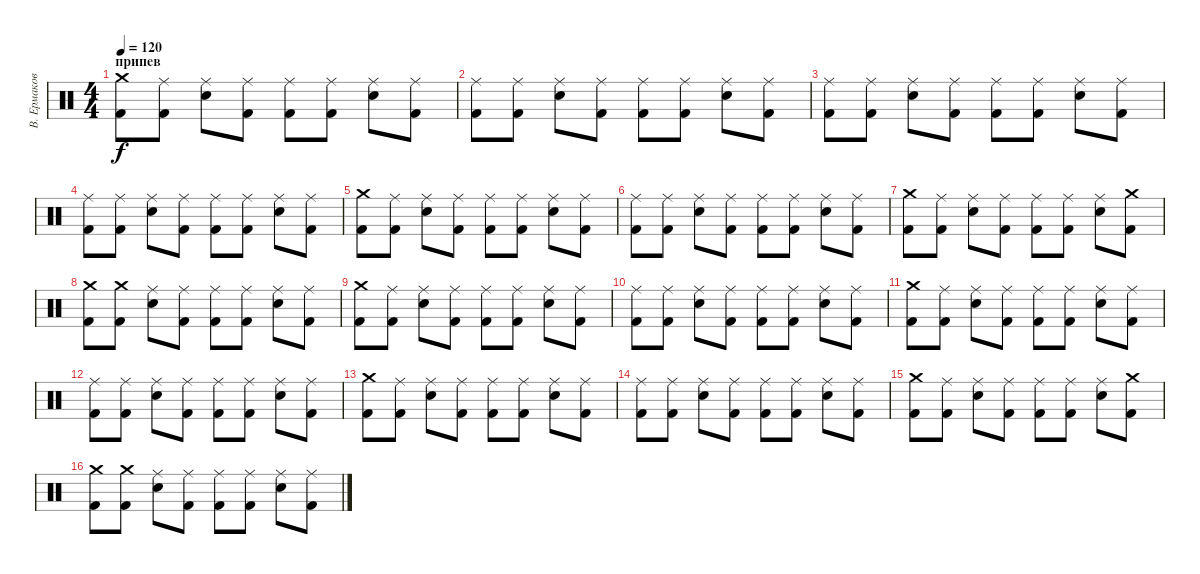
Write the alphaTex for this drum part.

\track ("В. Ермаков" "В. Ермаков") {instrument percussion}
\staff {score}
\articulation defaults
\ts (4 4)
\section ("" "припев")
\tempo 120
\clef neutral
\ks c
("Crash medium (hit)" "Kick (hit) 2").8{dy f} ("Ride (middle)" "Kick (hit) 2").8 ("Ride (middle)" "Electric Snare (hit)").8 ("Ride (middle)" "Kick (hit) 2").8 ("Ride (middle)" "Kick (hit) 2").8 ("Ride (middle)" "Kick (hit) 2").8 ("Ride (middle)" "Electric Snare (hit)").8 ("Ride (middle)" "Kick (hit) 2").8 |
("Ride (middle)" "Kick (hit) 2").8 ("Ride (middle)" "Kick (hit) 2").8 ("Ride (middle)" "Electric Snare (hit)").8 ("Ride (middle)" "Kick (hit) 2").8 ("Ride (middle)" "Kick (hit) 2").8 ("Ride (middle)" "Kick (hit) 2").8 ("Ride (middle)" "Electric Snare (hit)").8 ("Ride (middle)" "Kick (hit) 2").8 |
("Ride (middle)" "Kick (hit) 2").8 ("Ride (middle)" "Kick (hit) 2").8 ("Ride (middle)" "Electric Snare (hit)").8 ("Ride (middle)" "Kick (hit) 2").8 ("Ride (middle)" "Kick (hit) 2").8 ("Ride (middle)" "Kick (hit) 2").8 ("Ride (middle)" "Electric Snare (hit)").8 ("Ride (middle)" "Kick (hit) 2").8 |
("Ride (middle)" "Kick (hit) 2").8 ("Ride (middle)" "Kick (hit) 2").8 ("Ride (middle)" "Electric Snare (hit)").8 ("Ride (middle)" "Kick (hit) 2").8 ("Ride (middle)" "Kick (hit) 2").8 ("Ride (middle)" "Kick (hit) 2").8 ("Ride (middle)" "Electric Snare (hit)").8 ("Ride (middle)" "Kick (hit) 2").8 |
("Crash medium (hit)" "Kick (hit) 2").8 ("Ride (middle)" "Kick (hit) 2").8 ("Ride (middle)" "Electric Snare (hit)").8 ("Ride (middle)" "Kick (hit) 2").8 ("Ride (middle)" "Kick (hit) 2").8 ("Ride (middle)" "Kick (hit) 2").8 ("Ride (middle)" "Electric Snare (hit)").8 ("Ride (middle)" "Kick (hit) 2").8 |
("Ride (middle)" "Kick (hit) 2").8 ("Ride (middle)" "Kick (hit) 2").8 ("Ride (middle)" "Electric Snare (hit)").8 ("Ride (middle)" "Kick (hit) 2").8 ("Ride (middle)" "Kick (hit) 2").8 ("Ride (middle)" "Kick (hit) 2").8 ("Ride (middle)" "Electric Snare (hit)").8 ("Ride (middle)" "Kick (hit) 2").8 |
("Crash medium (hit)" "Kick (hit) 2").8 ("Ride (middle)" "Kick (hit) 2").8 ("Ride (middle)" "Electric Snare (hit)").8 ("Ride (middle)" "Kick (hit) 2").8 ("Ride (middle)" "Kick (hit) 2").8 ("Ride (middle)" "Kick (hit) 2").8 ("Ride (middle)" "Electric Snare (hit)").8 ("Crash medium (hit)" "Kick (hit) 2").8 |
("Crash medium (hit)" "Kick (hit) 2").8 ("Crash medium (hit)" "Kick (hit) 2").8 ("Ride (middle)" "Electric Snare (hit)").8 ("Ride (middle)" "Kick (hit) 2").8 ("Ride (middle)" "Kick (hit) 2").8 ("Ride (middle)" "Kick (hit) 2").8 ("Ride (middle)" "Electric Snare (hit)").8 ("Ride (middle)" "Kick (hit) 2").8 |
("Crash medium (hit)" "Kick (hit) 2").8 ("Ride (middle)" "Kick (hit) 2").8 ("Ride (middle)" "Electric Snare (hit)").8 ("Ride (middle)" "Kick (hit) 2").8 ("Ride (middle)" "Kick (hit) 2").8 ("Ride (middle)" "Kick (hit) 2").8 ("Ride (middle)" "Electric Snare (hit)").8 ("Ride (middle)" "Kick (hit) 2").8 |
("Ride (middle)" "Kick (hit) 2").8 ("Ride (middle)" "Kick (hit) 2").8 ("Ride (middle)" "Electric Snare (hit)").8 ("Ride (middle)" "Kick (hit) 2").8 ("Ride (middle)" "Kick (hit) 2").8 ("Ride (middle)" "Kick (hit) 2").8 ("Ride (middle)" "Electric Snare (hit)").8 ("Ride (middle)" "Kick (hit) 2").8 |
("Crash medium (hit)" "Kick (hit) 2").8 ("Ride (middle)" "Kick (hit) 2").8 ("Ride (middle)" "Electric Snare (hit)").8 ("Ride (middle)" "Kick (hit) 2").8 ("Ride (middle)" "Kick (hit) 2").8 ("Ride (middle)" "Kick (hit) 2").8 ("Ride (middle)" "Electric Snare (hit)").8 ("Ride (middle)" "Kick (hit) 2").8 |
("Ride (middle)" "Kick (hit) 2").8 ("Ride (middle)" "Kick (hit) 2").8 ("Ride (middle)" "Electric Snare (hit)").8 ("Ride (middle)" "Kick (hit) 2").8 ("Ride (middle)" "Kick (hit) 2").8 ("Ride (middle)" "Kick (hit) 2").8 ("Ride (middle)" "Electric Snare (hit)").8 ("Ride (middle)" "Kick (hit) 2").8 |
("Crash medium (hit)" "Kick (hit) 2").8 ("Ride (middle)" "Kick (hit) 2").8 ("Ride (middle)" "Electric Snare (hit)").8 ("Ride (middle)" "Kick (hit) 2").8 ("Ride (middle)" "Kick (hit) 2").8 ("Ride (middle)" "Kick (hit) 2").8 ("Ride (middle)" "Electric Snare (hit)").8 ("Ride (middle)" "Kick (hit) 2").8 |
("Ride (middle)" "Kick (hit) 2").8 ("Ride (middle)" "Kick (hit) 2").8 ("Ride (middle)" "Electric Snare (hit)").8 ("Ride (middle)" "Kick (hit) 2").8 ("Ride (middle)" "Kick (hit) 2").8 ("Ride (middle)" "Kick (hit) 2").8 ("Ride (middle)" "Electric Snare (hit)").8 ("Ride (middle)" "Kick (hit) 2").8 |
("Crash medium (hit)" "Kick (hit) 2").8 ("Ride (middle)" "Kick (hit) 2").8 ("Ride (middle)" "Electric Snare (hit)").8 ("Ride (middle)" "Kick (hit) 2").8 ("Ride (middle)" "Kick (hit) 2").8 ("Ride (middle)" "Kick (hit) 2").8 ("Ride (middle)" "Electric Snare (hit)").8 ("Crash medium (hit)" "Kick (hit) 2").8 |
("Crash medium (hit)" "Kick (hit) 2").8 ("Crash medium (hit)" "Kick (hit) 2").8 ("Ride (middle)" "Electric Snare (hit)").8 ("Ride (middle)" "Kick (hit) 2").8 ("Ride (middle)" "Kick (hit) 2").8 ("Ride (middle)" "Kick (hit) 2").8 ("Ride (middle)" "Electric Snare (hit)").8 ("Ride (middle)" "Kick (hit) 2").8
